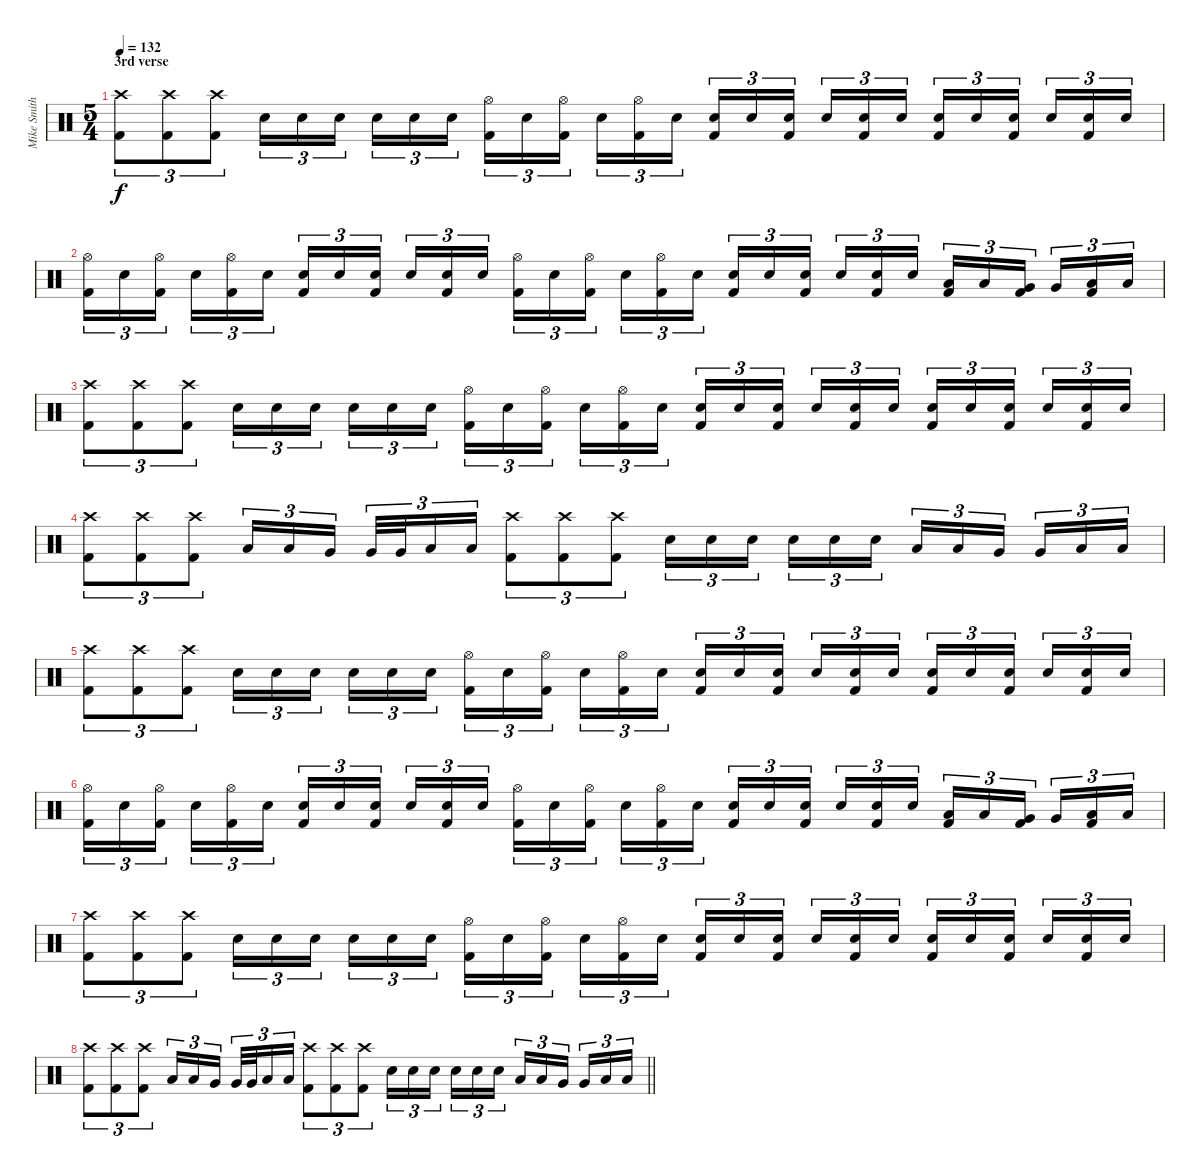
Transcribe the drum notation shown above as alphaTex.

\track ("Mike Smith" "Mike Smith") {instrument percussion}
\staff {score}
\articulation defaults
\ts (5 4)
\section ("" "3rd verse")
\tempo 132
\clef neutral
\ks c
("Crash high (hit)" "Kick (hit) 2").8{tu (3 2) dy f} ("Crash high (hit)" "Kick (hit) 2").8{tu (3 2)} ("Crash high (hit)" "Kick (hit) 2").8{tu (3 2)} "Electric Snare (hit)".16{tu (3 2)} "Electric Snare (hit)".16{tu (3 2)} "Electric Snare (hit)".16{tu (3 2) beam splitsecondary} "Electric Snare (hit)".16{tu (3 2)} "Electric Snare (hit)".16{tu (3 2)} "Electric Snare (hit)".16{tu (3 2)} ("Hi-Hat (open)" "Kick (hit) 2").16{tu (3 2)} "Electric Snare (hit)".16{tu (3 2)} ("Hi-Hat (open)" "Kick (hit) 2").16{tu (3 2) beam splitsecondary} "Electric Snare (hit)".16{tu (3 2)} ("Hi-Hat (open)" "Kick (hit) 2").16{tu (3 2)} "Electric Snare (hit)".16{tu (3 2)} ("Electric Snare (hit)" "Kick (hit) 2").16{tu (3 2)} "Electric Snare (hit)".16{tu (3 2)} ("Electric Snare (hit)" "Kick (hit) 2").16{tu (3 2) beam splitsecondary} "Electric Snare (hit)".16{tu (3 2)} ("Electric Snare (hit)" "Kick (hit) 2").16{tu (3 2)} "Electric Snare (hit)".16{tu (3 2)} ("Electric Snare (hit)" "Kick (hit) 2").16{tu (3 2)} "Electric Snare (hit)".16{tu (3 2)} ("Electric Snare (hit)" "Kick (hit) 2").16{tu (3 2) beam splitsecondary} "Electric Snare (hit)".16{tu (3 2)} ("Electric Snare (hit)" "Kick (hit) 2").16{tu (3 2)} "Electric Snare (hit)".16{tu (3 2)} |
("Hi-Hat (open)" "Kick (hit) 2").16{tu (3 2)} "Electric Snare (hit)".16{tu (3 2)} ("Hi-Hat (open)" "Kick (hit) 2").16{tu (3 2) beam splitsecondary} "Electric Snare (hit)".16{tu (3 2)} ("Hi-Hat (open)" "Kick (hit) 2").16{tu (3 2)} "Electric Snare (hit)".16{tu (3 2)} ("Electric Snare (hit)" "Kick (hit) 2").16{tu (3 2)} "Electric Snare (hit)".16{tu (3 2)} ("Electric Snare (hit)" "Kick (hit) 2").16{tu (3 2) beam splitsecondary} "Electric Snare (hit)".16{tu (3 2)} ("Electric Snare (hit)" "Kick (hit) 2").16{tu (3 2)} "Electric Snare (hit)".16{tu (3 2)} ("Hi-Hat (open)" "Kick (hit) 2").16{tu (3 2)} "Electric Snare (hit)".16{tu (3 2)} ("Hi-Hat (open)" "Kick (hit) 2").16{tu (3 2) beam splitsecondary} "Electric Snare (hit)".16{tu (3 2)} ("Hi-Hat (open)" "Kick (hit) 2").16{tu (3 2)} "Electric Snare (hit)".16{tu (3 2)} ("Electric Snare (hit)" "Kick (hit) 2").16{tu (3 2)} "Electric Snare (hit)".16{tu (3 2)} ("Electric Snare (hit)" "Kick (hit) 2").16{tu (3 2) beam splitsecondary} "Electric Snare (hit)".16{tu (3 2)} ("Electric Snare (hit)" "Kick (hit) 2").16{tu (3 2)} "Electric Snare (hit)".16{tu (3 2)} ("Low Tom (hit)" "Kick (hit) 2").16{tu (3 2)} "Low Tom (hit)".16{tu (3 2)} ("Very Low Tom (hit)" "Kick (hit) 2").16{tu (3 2) beam splitsecondary} "Very Low Tom (hit)".16{tu (3 2)} ("Low Floor Tom (hit)" "Kick (hit) 2").16{tu (3 2)} "Low Floor Tom (hit)".16{tu (3 2)} |
("Crash high (hit)" "Kick (hit) 2").8{tu (3 2)} ("Crash high (hit)" "Kick (hit) 2").8{tu (3 2)} ("Crash high (hit)" "Kick (hit) 2").8{tu (3 2)} "Electric Snare (hit)".16{tu (3 2)} "Electric Snare (hit)".16{tu (3 2)} "Electric Snare (hit)".16{tu (3 2) beam splitsecondary} "Electric Snare (hit)".16{tu (3 2)} "Electric Snare (hit)".16{tu (3 2)} "Electric Snare (hit)".16{tu (3 2)} ("Hi-Hat (open)" "Kick (hit) 2").16{tu (3 2)} "Electric Snare (hit)".16{tu (3 2)} ("Hi-Hat (open)" "Kick (hit) 2").16{tu (3 2) beam splitsecondary} "Electric Snare (hit)".16{tu (3 2)} ("Hi-Hat (open)" "Kick (hit) 2").16{tu (3 2)} "Electric Snare (hit)".16{tu (3 2)} ("Electric Snare (hit)" "Kick (hit) 2").16{tu (3 2)} "Electric Snare (hit)".16{tu (3 2)} ("Electric Snare (hit)" "Kick (hit) 2").16{tu (3 2) beam splitsecondary} "Electric Snare (hit)".16{tu (3 2)} ("Electric Snare (hit)" "Kick (hit) 2").16{tu (3 2)} "Electric Snare (hit)".16{tu (3 2)} ("Electric Snare (hit)" "Kick (hit) 2").16{tu (3 2)} "Electric Snare (hit)".16{tu (3 2)} ("Electric Snare (hit)" "Kick (hit) 2").16{tu (3 2) beam splitsecondary} "Electric Snare (hit)".16{tu (3 2)} ("Electric Snare (hit)" "Kick (hit) 2").16{tu (3 2)} "Electric Snare (hit)".16{tu (3 2)} |
("Crash high (hit)" "Kick (hit) 2").8{tu (3 2)} ("Crash high (hit)" "Kick (hit) 2").8{tu (3 2)} ("Crash high (hit)" "Kick (hit) 2").8{tu (3 2)} "Low Tom (hit)".16{tu (3 2)} "Low Tom (hit)".16{tu (3 2)} "Very Low Tom (hit)".16{tu (3 2) beam splitsecondary} "Very Low Tom (hit)".32{tu (3 2)} "Very Low Tom (hit)".32{tu (3 2)} "Low Floor Tom (hit)".16{tu (3 2)} "Low Floor Tom (hit)".16{tu (3 2)} ("Crash high (hit)" "Kick (hit) 2").8{tu (3 2)} ("Crash high (hit)" "Kick (hit) 2").8{tu (3 2)} ("Crash high (hit)" "Kick (hit) 2").8{tu (3 2)} "Electric Snare (hit)".16{tu (3 2)} "Electric Snare (hit)".16{tu (3 2)} "Electric Snare (hit)".16{tu (3 2) beam splitsecondary} "Electric Snare (hit)".16{tu (3 2)} "Electric Snare (hit)".16{tu (3 2)} "Electric Snare (hit)".16{tu (3 2)} "Low Tom (hit)".16{tu (3 2)} "Low Tom (hit)".16{tu (3 2)} "Very Low Tom (hit)".16{tu (3 2) beam splitsecondary} "Very Low Tom (hit)".16{tu (3 2)} "Low Floor Tom (hit)".16{tu (3 2)} "Low Floor Tom (hit)".16{tu (3 2)} |
("Crash high (hit)" "Kick (hit) 2").8{tu (3 2)} ("Crash high (hit)" "Kick (hit) 2").8{tu (3 2)} ("Crash high (hit)" "Kick (hit) 2").8{tu (3 2)} "Electric Snare (hit)".16{tu (3 2)} "Electric Snare (hit)".16{tu (3 2)} "Electric Snare (hit)".16{tu (3 2) beam splitsecondary} "Electric Snare (hit)".16{tu (3 2)} "Electric Snare (hit)".16{tu (3 2)} "Electric Snare (hit)".16{tu (3 2)} ("Hi-Hat (open)" "Kick (hit) 2").16{tu (3 2)} "Electric Snare (hit)".16{tu (3 2)} ("Hi-Hat (open)" "Kick (hit) 2").16{tu (3 2) beam splitsecondary} "Electric Snare (hit)".16{tu (3 2)} ("Hi-Hat (open)" "Kick (hit) 2").16{tu (3 2)} "Electric Snare (hit)".16{tu (3 2)} ("Electric Snare (hit)" "Kick (hit) 2").16{tu (3 2)} "Electric Snare (hit)".16{tu (3 2)} ("Electric Snare (hit)" "Kick (hit) 2").16{tu (3 2) beam splitsecondary} "Electric Snare (hit)".16{tu (3 2)} ("Electric Snare (hit)" "Kick (hit) 2").16{tu (3 2)} "Electric Snare (hit)".16{tu (3 2)} ("Electric Snare (hit)" "Kick (hit) 2").16{tu (3 2)} "Electric Snare (hit)".16{tu (3 2)} ("Electric Snare (hit)" "Kick (hit) 2").16{tu (3 2) beam splitsecondary} "Electric Snare (hit)".16{tu (3 2)} ("Electric Snare (hit)" "Kick (hit) 2").16{tu (3 2)} "Electric Snare (hit)".16{tu (3 2)} |
("Hi-Hat (open)" "Kick (hit) 2").16{tu (3 2)} "Electric Snare (hit)".16{tu (3 2)} ("Hi-Hat (open)" "Kick (hit) 2").16{tu (3 2) beam splitsecondary} "Electric Snare (hit)".16{tu (3 2)} ("Hi-Hat (open)" "Kick (hit) 2").16{tu (3 2)} "Electric Snare (hit)".16{tu (3 2)} ("Electric Snare (hit)" "Kick (hit) 2").16{tu (3 2)} "Electric Snare (hit)".16{tu (3 2)} ("Electric Snare (hit)" "Kick (hit) 2").16{tu (3 2) beam splitsecondary} "Electric Snare (hit)".16{tu (3 2)} ("Electric Snare (hit)" "Kick (hit) 2").16{tu (3 2)} "Electric Snare (hit)".16{tu (3 2)} ("Hi-Hat (open)" "Kick (hit) 2").16{tu (3 2)} "Electric Snare (hit)".16{tu (3 2)} ("Hi-Hat (open)" "Kick (hit) 2").16{tu (3 2) beam splitsecondary} "Electric Snare (hit)".16{tu (3 2)} ("Hi-Hat (open)" "Kick (hit) 2").16{tu (3 2)} "Electric Snare (hit)".16{tu (3 2)} ("Electric Snare (hit)" "Kick (hit) 2").16{tu (3 2)} "Electric Snare (hit)".16{tu (3 2)} ("Electric Snare (hit)" "Kick (hit) 2").16{tu (3 2) beam splitsecondary} "Electric Snare (hit)".16{tu (3 2)} ("Electric Snare (hit)" "Kick (hit) 2").16{tu (3 2)} "Electric Snare (hit)".16{tu (3 2)} ("Low Tom (hit)" "Kick (hit) 2").16{tu (3 2)} "Low Tom (hit)".16{tu (3 2)} ("Very Low Tom (hit)" "Kick (hit) 2").16{tu (3 2) beam splitsecondary} "Very Low Tom (hit)".16{tu (3 2)} ("Low Floor Tom (hit)" "Kick (hit) 2").16{tu (3 2)} "Low Floor Tom (hit)".16{tu (3 2)} |
("Crash high (hit)" "Kick (hit) 2").8{tu (3 2)} ("Crash high (hit)" "Kick (hit) 2").8{tu (3 2)} ("Crash high (hit)" "Kick (hit) 2").8{tu (3 2)} "Electric Snare (hit)".16{tu (3 2)} "Electric Snare (hit)".16{tu (3 2)} "Electric Snare (hit)".16{tu (3 2) beam splitsecondary} "Electric Snare (hit)".16{tu (3 2)} "Electric Snare (hit)".16{tu (3 2)} "Electric Snare (hit)".16{tu (3 2)} ("Hi-Hat (open)" "Kick (hit) 2").16{tu (3 2)} "Electric Snare (hit)".16{tu (3 2)} ("Hi-Hat (open)" "Kick (hit) 2").16{tu (3 2) beam splitsecondary} "Electric Snare (hit)".16{tu (3 2)} ("Hi-Hat (open)" "Kick (hit) 2").16{tu (3 2)} "Electric Snare (hit)".16{tu (3 2)} ("Electric Snare (hit)" "Kick (hit) 2").16{tu (3 2)} "Electric Snare (hit)".16{tu (3 2)} ("Electric Snare (hit)" "Kick (hit) 2").16{tu (3 2) beam splitsecondary} "Electric Snare (hit)".16{tu (3 2)} ("Electric Snare (hit)" "Kick (hit) 2").16{tu (3 2)} "Electric Snare (hit)".16{tu (3 2)} ("Electric Snare (hit)" "Kick (hit) 2").16{tu (3 2)} "Electric Snare (hit)".16{tu (3 2)} ("Electric Snare (hit)" "Kick (hit) 2").16{tu (3 2) beam splitsecondary} "Electric Snare (hit)".16{tu (3 2)} ("Electric Snare (hit)" "Kick (hit) 2").16{tu (3 2)} "Electric Snare (hit)".16{tu (3 2)} |
\barLineRight lightlight
("Crash high (hit)" "Kick (hit) 2").8{tu (3 2)} ("Crash high (hit)" "Kick (hit) 2").8{tu (3 2)} ("Crash high (hit)" "Kick (hit) 2").8{tu (3 2)} "Low Tom (hit)".16{tu (3 2)} "Low Tom (hit)".16{tu (3 2)} "Very Low Tom (hit)".16{tu (3 2) beam splitsecondary} "Very Low Tom (hit)".32{tu (3 2)} "Very Low Tom (hit)".32{tu (3 2)} "Low Floor Tom (hit)".16{tu (3 2)} "Low Floor Tom (hit)".16{tu (3 2)} ("Crash high (hit)" "Kick (hit) 2").8{tu (3 2)} ("Crash high (hit)" "Kick (hit) 2").8{tu (3 2)} ("Crash high (hit)" "Kick (hit) 2").8{tu (3 2)} "Electric Snare (hit)".16{tu (3 2)} "Electric Snare (hit)".16{tu (3 2)} "Electric Snare (hit)".16{tu (3 2) beam splitsecondary} "Electric Snare (hit)".16{tu (3 2)} "Electric Snare (hit)".16{tu (3 2)} "Electric Snare (hit)".16{tu (3 2)} "Low Tom (hit)".16{tu (3 2)} "Low Tom (hit)".16{tu (3 2)} "Very Low Tom (hit)".16{tu (3 2) beam splitsecondary} "Very Low Tom (hit)".16{tu (3 2)} "Low Floor Tom (hit)".16{tu (3 2)} "Low Floor Tom (hit)".16{tu (3 2)}
